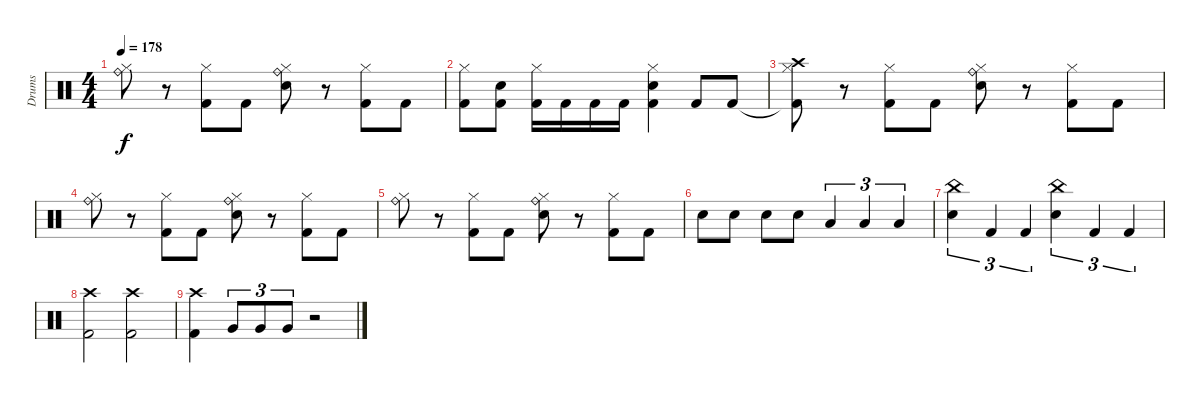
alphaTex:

\track ("Drums" "Drums") {instrument percussion}
\staff {score}
\articulation defaults
\ts (4 4)
\tempo 178
\clef neutral
\ks c
("Hi-Hat (closed)" "Ride (bell)").8{dy f} r.8 ("Kick (hit) 2" "Hi-Hat (closed)").8 "Kick (hit) 2".8 ("Snare (hit) 2" "Hi-Hat (closed)" "Ride (bell)").8 r.8 ("Kick (hit) 2" "Hi-Hat (closed)").8 "Kick (hit) 2".8 |
("Kick (hit) 2" "Hi-Hat (closed)").8 ("Kick (hit) 2" "Snare (hit) 2").8 ("Kick (hit) 2" "Hi-Hat (closed)").16 "Kick (hit) 2".16 "Kick (hit) 2".16 "Kick (hit) 2".16 ("Kick (hit) 2" "Snare (hit) 2" "Hi-Hat (closed)").4 "Kick (hit) 2".8 "Kick (hit) 2".8 |
("Kick (hit) 2"{t} "Hi-Hat (closed)" "Crash high (hit)").8 r.8 ("Kick (hit) 2" "Hi-Hat (closed)").8 "Kick (hit) 2".8 ("Snare (hit) 2" "Hi-Hat (closed)" "Ride (bell)").8 r.8 ("Kick (hit) 2" "Hi-Hat (closed)").8 "Kick (hit) 2".8 |
("Hi-Hat (closed)" "Ride (bell)").8 r.8 ("Kick (hit) 2" "Hi-Hat (closed)").8 "Kick (hit) 2".8 ("Snare (hit) 2" "Hi-Hat (closed)" "Ride (bell)").8 r.8 ("Kick (hit) 2" "Hi-Hat (closed)").8 "Kick (hit) 2".8 |
("Hi-Hat (closed)" "Ride (bell)").8 r.8 ("Kick (hit) 2" "Hi-Hat (closed)").8 "Kick (hit) 2".8 ("Snare (hit) 2" "Hi-Hat (closed)" "Ride (bell)").8 r.8 ("Kick (hit) 2" "Hi-Hat (closed)").8 "Kick (hit) 2".8 |
"Snare (hit) 2".8 "Snare (hit) 2".8 "Snare (hit) 2".8 "Snare (hit) 2".8 "Low Floor Tom (hit)".4{tu (3 2)} "Low Floor Tom (hit)".4{tu (3 2)} "Low Floor Tom (hit)".4{tu (3 2)} |
("Snare (hit) 2" "China (hit)").4{tu (3 2)} "Kick (hit) 2".4{tu (3 2)} "Kick (hit) 2".4{tu (3 2)} ("Snare (hit) 2" "China (hit)").4{tu (3 2)} "Kick (hit) 2".4{tu (3 2)} "Kick (hit) 2".4{tu (3 2)} |
("Kick (hit) 2" "Crash high (hit)").2 ("Kick (hit) 2" "Crash high (hit)").2 |
("Kick (hit) 2" "Crash high (hit)").4 "Very Low Tom (hit)".8{tu (3 2)} "Very Low Tom (hit)".8{tu (3 2)} "Very Low Tom (hit)".8{tu (3 2)} r.2
